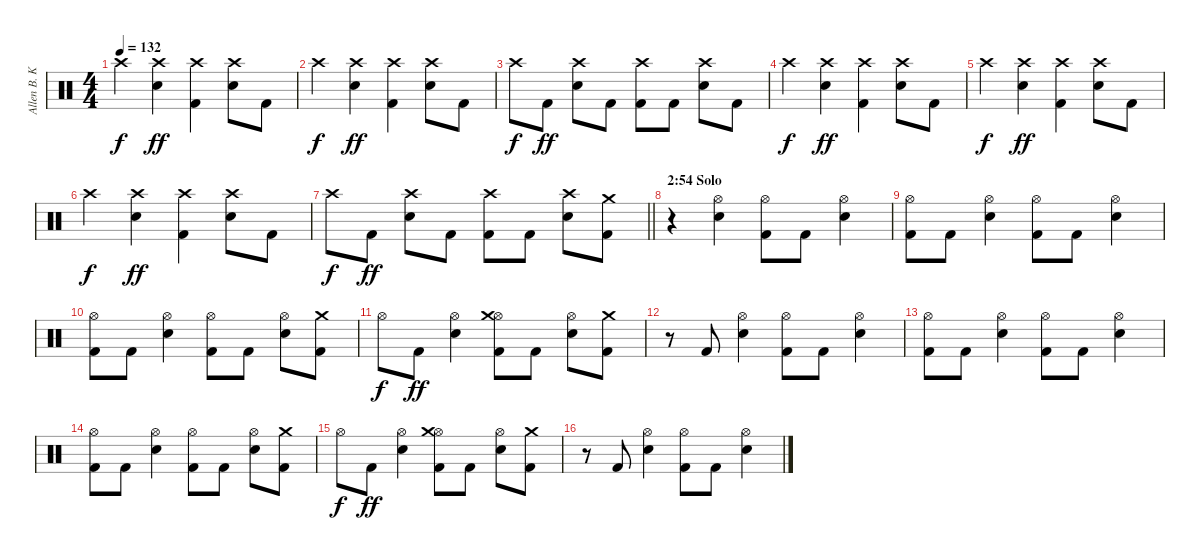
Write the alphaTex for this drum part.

\track ("Allen B. Konstanz (Drums)" "Allen B. K") {instrument percussion}
\staff {score}
\articulation defaults
\ts (4 4)
\tempo 132
\clef neutral
\ks c "Crash high (hit)".4{dy f}
("Electric Snare (hit)" "Crash high (hit)").4{dy ff} ("Kick (hit) 2" "Crash high (hit)").4 ("Electric Snare (hit)" "Crash high (hit)").8 "Kick (hit) 2".8 |
"Crash high (hit)".4{dy f} ("Electric Snare (hit)" "Crash high (hit)").4{dy ff} ("Kick (hit) 2" "Crash high (hit)").4 ("Electric Snare (hit)" "Crash high (hit)").8 "Kick (hit) 2".8 |
"Crash high (hit)".8{dy f} "Kick (hit) 2".8{dy ff} ("Electric Snare (hit)" "Crash high (hit)").8 "Kick (hit) 2".8 ("Kick (hit) 2" "Crash high (hit)").8 "Kick (hit) 2".8 ("Electric Snare (hit)" "Crash high (hit)").8 "Kick (hit) 2".8 |
"Crash high (hit)".4{dy f} ("Electric Snare (hit)" "Crash high (hit)").4{dy ff} ("Kick (hit) 2" "Crash high (hit)").4 ("Electric Snare (hit)" "Crash high (hit)").8 "Kick (hit) 2".8 |
"Crash high (hit)".4{dy f} ("Electric Snare (hit)" "Crash high (hit)").4{dy ff} ("Kick (hit) 2" "Crash high (hit)").4 ("Electric Snare (hit)" "Crash high (hit)").8 "Kick (hit) 2".8 |
"Crash high (hit)".4{dy f} ("Electric Snare (hit)" "Crash high (hit)").4{dy ff} ("Kick (hit) 2" "Crash high (hit)").4 ("Electric Snare (hit)" "Crash high (hit)").8 "Kick (hit) 2".8 |
\barLineRight lightlight "Crash high (hit)".8{dy f} "Kick (hit) 2".8{dy ff}
("Electric Snare (hit)" "Crash high (hit)").8 "Kick (hit) 2".8 ("Kick (hit) 2" "Crash high (hit)").8 "Kick (hit) 2".8 ("Electric Snare (hit)" "Crash high (hit)").8 ("Kick (hit) 2" "Crash medium (hit)").8 |
\section ("" "2:54 Solo")
r.4 ("Electric Snare (hit)" "Hi-Hat (open)").4 ("Kick (hit) 2" "Hi-Hat (open)").8 "Kick (hit) 2".8 ("Electric Snare (hit)" "Hi-Hat (open)").4 |
("Kick (hit) 2" "Hi-Hat (open)").8 "Kick (hit) 2".8 ("Electric Snare (hit)" "Hi-Hat (open)").4 ("Kick (hit) 2" "Hi-Hat (open)").8 "Kick (hit) 2".8 ("Electric Snare (hit)" "Hi-Hat (open)").4 |
("Kick (hit) 2" "Hi-Hat (open)").8 "Kick (hit) 2".8 ("Electric Snare (hit)" "Hi-Hat (open)").4 ("Kick (hit) 2" "Hi-Hat (open)").8 "Kick (hit) 2".8 ("Electric Snare (hit)" "Hi-Hat (open)").8 ("Kick (hit) 2" "Crash medium (hit)").8 |
"Hi-Hat (open)".8{dy f} "Kick (hit) 2".8{dy ff} ("Electric Snare (hit)" "Hi-Hat (open)").4 ("Kick (hit) 2" "Hi-Hat (open)" "Crash medium (hit)").8 "Kick (hit) 2".8 ("Electric Snare (hit)" "Hi-Hat (open)").8 ("Kick (hit) 2" "Crash medium (hit)").8 |
r.8 "Kick (hit) 2".8 ("Electric Snare (hit)" "Hi-Hat (open)").4 ("Kick (hit) 2" "Hi-Hat (open)").8 "Kick (hit) 2".8 ("Electric Snare (hit)" "Hi-Hat (open)").4 |
("Kick (hit) 2" "Hi-Hat (open)").8 "Kick (hit) 2".8 ("Electric Snare (hit)" "Hi-Hat (open)").4 ("Kick (hit) 2" "Hi-Hat (open)").8 "Kick (hit) 2".8 ("Electric Snare (hit)" "Hi-Hat (open)").4 |
("Kick (hit) 2" "Hi-Hat (open)").8 "Kick (hit) 2".8 ("Electric Snare (hit)" "Hi-Hat (open)").4 ("Kick (hit) 2" "Hi-Hat (open)").8 "Kick (hit) 2".8 ("Electric Snare (hit)" "Hi-Hat (open)").8 ("Kick (hit) 2" "Crash medium (hit)").8 |
"Hi-Hat (open)".8{dy f} "Kick (hit) 2".8{dy ff} ("Electric Snare (hit)" "Hi-Hat (open)").4 ("Kick (hit) 2" "Hi-Hat (open)" "Crash medium (hit)").8 "Kick (hit) 2".8 ("Electric Snare (hit)" "Hi-Hat (open)").8 ("Kick (hit) 2" "Crash medium (hit)").8 |
r.8 "Kick (hit) 2".8 ("Electric Snare (hit)" "Hi-Hat (open)").4 ("Kick (hit) 2" "Hi-Hat (open)").8 "Kick (hit) 2".8 ("Electric Snare (hit)" "Hi-Hat (open)").4
